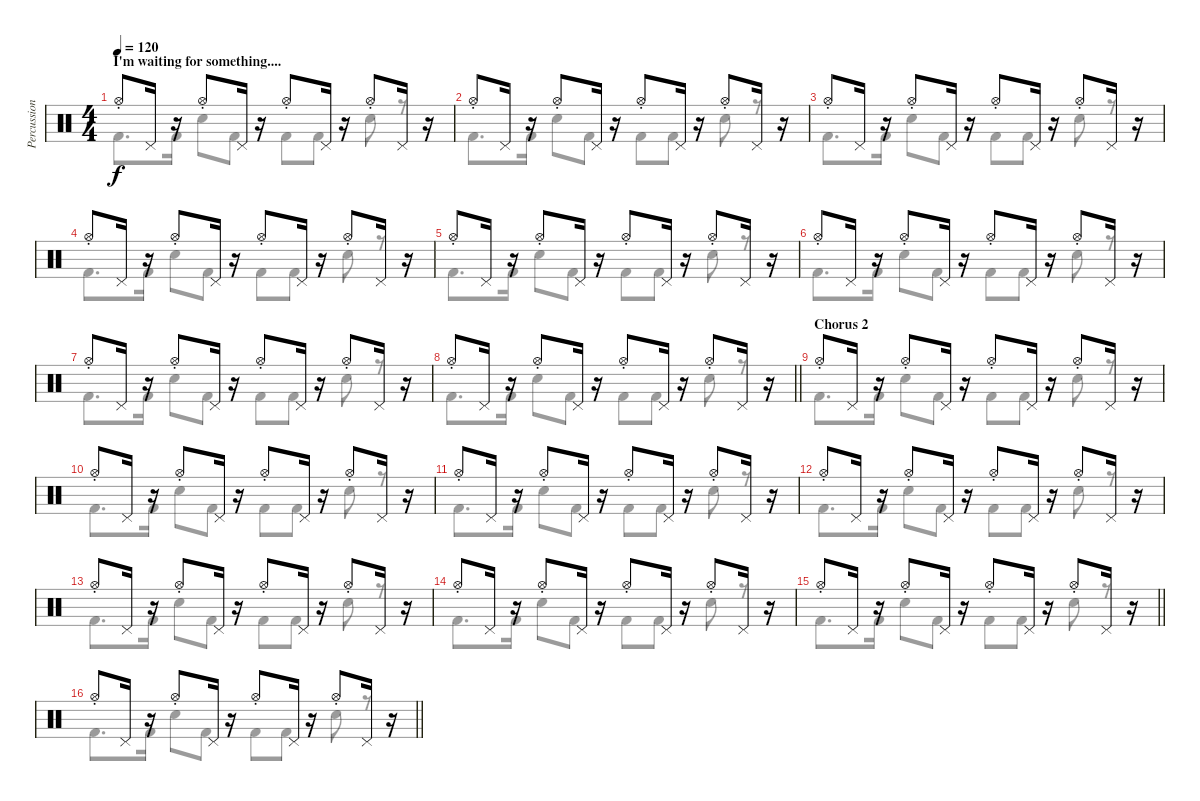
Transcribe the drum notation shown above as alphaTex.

\track ("Percussion" "Percussion") {instrument percussion}
\staff {score}
\articulation defaults
\voice
\ts (4 4)
\section ("" "I'm waiting for something....")
\tempo 120
\clef neutral
\ks c "Hi-Hat (open)"{st}.8{dy f} "Pedal Hi-Hat (hit)".16
r.16 "Hi-Hat (open)"{st}.8 "Pedal Hi-Hat (hit)".16 r.16 "Hi-Hat (open)"{st}.8 "Pedal Hi-Hat (hit)".16 r.16 "Hi-Hat (open)"{st}.8 "Pedal Hi-Hat (hit)".16 r.16 |
"Hi-Hat (open)"{st}.8 "Pedal Hi-Hat (hit)".16 r.16 "Hi-Hat (open)"{st}.8 "Pedal Hi-Hat (hit)".16 r.16 "Hi-Hat (open)"{st}.8 "Pedal Hi-Hat (hit)".16 r.16 "Hi-Hat (open)"{st}.8 "Pedal Hi-Hat (hit)".16 r.16 |
"Hi-Hat (open)"{st}.8 "Pedal Hi-Hat (hit)".16 r.16 "Hi-Hat (open)"{st}.8 "Pedal Hi-Hat (hit)".16 r.16 "Hi-Hat (open)"{st}.8 "Pedal Hi-Hat (hit)".16 r.16 "Hi-Hat (open)"{st}.8 "Pedal Hi-Hat (hit)".16 r.16 |
"Hi-Hat (open)"{st}.8 "Pedal Hi-Hat (hit)".16 r.16 "Hi-Hat (open)"{st}.8 "Pedal Hi-Hat (hit)".16 r.16 "Hi-Hat (open)"{st}.8 "Pedal Hi-Hat (hit)".16 r.16 "Hi-Hat (open)"{st}.8 "Pedal Hi-Hat (hit)".16 r.16 |
"Hi-Hat (open)"{st}.8 "Pedal Hi-Hat (hit)".16 r.16 "Hi-Hat (open)"{st}.8 "Pedal Hi-Hat (hit)".16 r.16 "Hi-Hat (open)"{st}.8 "Pedal Hi-Hat (hit)".16 r.16 "Hi-Hat (open)"{st}.8 "Pedal Hi-Hat (hit)".16 r.16 |
"Hi-Hat (open)"{st}.8 "Pedal Hi-Hat (hit)".16 r.16 "Hi-Hat (open)"{st}.8 "Pedal Hi-Hat (hit)".16 r.16 "Hi-Hat (open)"{st}.8 "Pedal Hi-Hat (hit)".16 r.16 "Hi-Hat (open)"{st}.8 "Pedal Hi-Hat (hit)".16 r.16 |
"Hi-Hat (open)"{st}.8 "Pedal Hi-Hat (hit)".16 r.16 "Hi-Hat (open)"{st}.8 "Pedal Hi-Hat (hit)".16 r.16 "Hi-Hat (open)"{st}.8 "Pedal Hi-Hat (hit)".16 r.16 "Hi-Hat (open)"{st}.8 "Pedal Hi-Hat (hit)".16 r.16 |
\barLineRight lightlight "Hi-Hat (open)"{st}.8 "Pedal Hi-Hat (hit)".16
r.16 "Hi-Hat (open)"{st}.8 "Pedal Hi-Hat (hit)".16 r.16 "Hi-Hat (open)"{st}.8 "Pedal Hi-Hat (hit)".16 r.16 "Hi-Hat (open)"{st}.8 "Pedal Hi-Hat (hit)".16 r.16 |
\section ("" "Chorus 2")
"Hi-Hat (open)"{st}.8 "Pedal Hi-Hat (hit)".16 r.16 "Hi-Hat (open)"{st}.8 "Pedal Hi-Hat (hit)".16 r.16 "Hi-Hat (open)"{st}.8 "Pedal Hi-Hat (hit)".16 r.16 "Hi-Hat (open)"{st}.8 "Pedal Hi-Hat (hit)".16 r.16 |
"Hi-Hat (open)"{st}.8 "Pedal Hi-Hat (hit)".16 r.16 "Hi-Hat (open)"{st}.8 "Pedal Hi-Hat (hit)".16 r.16 "Hi-Hat (open)"{st}.8 "Pedal Hi-Hat (hit)".16 r.16 "Hi-Hat (open)"{st}.8 "Pedal Hi-Hat (hit)".16 r.16 |
"Hi-Hat (open)"{st}.8 "Pedal Hi-Hat (hit)".16 r.16 "Hi-Hat (open)"{st}.8 "Pedal Hi-Hat (hit)".16 r.16 "Hi-Hat (open)"{st}.8 "Pedal Hi-Hat (hit)".16 r.16 "Hi-Hat (open)"{st}.8 "Pedal Hi-Hat (hit)".16 r.16 |
"Hi-Hat (open)"{st}.8 "Pedal Hi-Hat (hit)".16 r.16 "Hi-Hat (open)"{st}.8 "Pedal Hi-Hat (hit)".16 r.16 "Hi-Hat (open)"{st}.8 "Pedal Hi-Hat (hit)".16 r.16 "Hi-Hat (open)"{st}.8 "Pedal Hi-Hat (hit)".16 r.16 |
"Hi-Hat (open)"{st}.8 "Pedal Hi-Hat (hit)".16 r.16 "Hi-Hat (open)"{st}.8 "Pedal Hi-Hat (hit)".16 r.16 "Hi-Hat (open)"{st}.8 "Pedal Hi-Hat (hit)".16 r.16 "Hi-Hat (open)"{st}.8 "Pedal Hi-Hat (hit)".16 r.16 |
"Hi-Hat (open)"{st}.8 "Pedal Hi-Hat (hit)".16 r.16 "Hi-Hat (open)"{st}.8 "Pedal Hi-Hat (hit)".16 r.16 "Hi-Hat (open)"{st}.8 "Pedal Hi-Hat (hit)".16 r.16 "Hi-Hat (open)"{st}.8 "Pedal Hi-Hat (hit)".16 r.16 |
\barLineRight lightlight "Hi-Hat (open)"{st}.8 "Pedal Hi-Hat (hit)".16
r.16 "Hi-Hat (open)"{st}.8 "Pedal Hi-Hat (hit)".16 r.16 "Hi-Hat (open)"{st}.8 "Pedal Hi-Hat (hit)".16 r.16 "Hi-Hat (open)"{st}.8 "Pedal Hi-Hat (hit)".16 r.16 |
\barLineRight lightlight "Hi-Hat (open)"{st}.8 "Pedal Hi-Hat (hit)".16
r.16 "Hi-Hat (open)"{st}.8 "Pedal Hi-Hat (hit)".16 r.16 "Hi-Hat (open)"{st}.8 "Pedal Hi-Hat (hit)".16 r.16 "Hi-Hat (open)"{st}.8 "Pedal Hi-Hat (hit)".16 r.16
\voice
\clef neutral
\ottava regular
\simile none
\ks c "Kick (hit) 2".8{d dy f} "Kick (hit) 2".16 "Electric Snare (hit)".8 "Kick (hit) 2".8 "Kick (hit) 2".8 "Kick (hit) 2".8 "Electric Snare (hit)".8
r.8 |
"Kick (hit) 2".8{d} "Kick (hit) 2".16 "Electric Snare (hit)".8 "Kick (hit) 2".8 "Kick (hit) 2".8 "Kick (hit) 2".8 "Electric Snare (hit)".8 r.8 |
"Kick (hit) 2".8{d} "Kick (hit) 2".16 "Electric Snare (hit)".8 "Kick (hit) 2".8 "Kick (hit) 2".8 "Kick (hit) 2".8 "Electric Snare (hit)".8 r.8 |
"Kick (hit) 2".8{d} "Kick (hit) 2".16 "Electric Snare (hit)".8 "Kick (hit) 2".8 "Kick (hit) 2".8 "Kick (hit) 2".8 "Electric Snare (hit)".8 r.8 |
"Kick (hit) 2".8{d} "Kick (hit) 2".16 "Electric Snare (hit)".8 "Kick (hit) 2".8 "Kick (hit) 2".8 "Kick (hit) 2".8 "Electric Snare (hit)".8 r.8 |
"Kick (hit) 2".8{d} "Kick (hit) 2".16 "Electric Snare (hit)".8 "Kick (hit) 2".8 "Kick (hit) 2".8 "Kick (hit) 2".8 "Electric Snare (hit)".8 r.8 |
"Kick (hit) 2".8{d} "Kick (hit) 2".16 "Electric Snare (hit)".8 "Kick (hit) 2".8 "Kick (hit) 2".8 "Kick (hit) 2".8 "Electric Snare (hit)".8 r.8 |
\barLineRight lightlight "Kick (hit) 2".8{d} "Kick (hit) 2".16 "Electric Snare (hit)".8 "Kick (hit) 2".8 "Kick (hit) 2".8 "Kick (hit) 2".8 "Electric Snare (hit)".8
r.8 |
"Kick (hit) 2".8{d} "Kick (hit) 2".16 "Electric Snare (hit)".8 "Kick (hit) 2".8 "Kick (hit) 2".8 "Kick (hit) 2".8 "Electric Snare (hit)".8 r.8 |
"Kick (hit) 2".8{d} "Kick (hit) 2".16 "Electric Snare (hit)".8 "Kick (hit) 2".8 "Kick (hit) 2".8 "Kick (hit) 2".8 "Electric Snare (hit)".8 r.8 |
"Kick (hit) 2".8{d} "Kick (hit) 2".16 "Electric Snare (hit)".8 "Kick (hit) 2".8 "Kick (hit) 2".8 "Kick (hit) 2".8 "Electric Snare (hit)".8 r.8 |
"Kick (hit) 2".8{d} "Kick (hit) 2".16 "Electric Snare (hit)".8 "Kick (hit) 2".8 "Kick (hit) 2".8 "Kick (hit) 2".8 "Electric Snare (hit)".8 r.8 |
"Kick (hit) 2".8{d} "Kick (hit) 2".16 "Electric Snare (hit)".8 "Kick (hit) 2".8 "Kick (hit) 2".8 "Kick (hit) 2".8 "Electric Snare (hit)".8 r.8 |
"Kick (hit) 2".8{d} "Kick (hit) 2".16 "Electric Snare (hit)".8 "Kick (hit) 2".8 "Kick (hit) 2".8 "Kick (hit) 2".8 "Electric Snare (hit)".8 r.8 |
\barLineRight lightlight "Kick (hit) 2".8{d} "Kick (hit) 2".16 "Electric Snare (hit)".8 "Kick (hit) 2".8 "Kick (hit) 2".8 "Kick (hit) 2".8 "Electric Snare (hit)".8
r.8 |
\barLineRight lightlight "Kick (hit) 2".8{d} "Kick (hit) 2".16 "Electric Snare (hit)".8 "Kick (hit) 2".8 "Kick (hit) 2".8 "Kick (hit) 2".8 "Electric Snare (hit)".8
r.8
